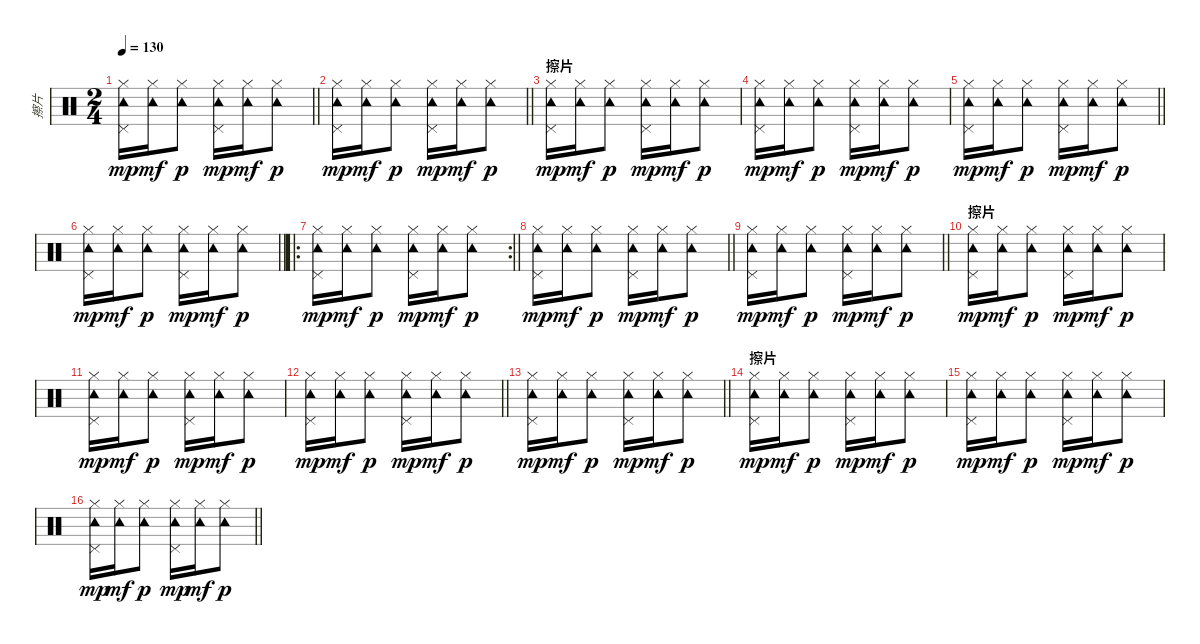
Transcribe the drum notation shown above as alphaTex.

\track ("擦片" "擦片") {instrument percussion}
\staff {score}
\articulation defaults
\ts (2 4)
\tempo 130
\clef neutral
\barLineRight lightlight
\ks c
("Hi-Hat (closed)" "Tambourine (hit)" "Pedal Hi-Hat (hit)").16{dy mp} ("Hi-Hat (closed)" "Tambourine (hit)").16{dy mf} ("Hi-Hat (closed)" "Tambourine (hit)").8{dy p} ("Hi-Hat (closed)" "Tambourine (hit)" "Pedal Hi-Hat (hit)").16{dy mp} ("Hi-Hat (closed)" "Tambourine (hit)").16{dy mf} ("Hi-Hat (closed)" "Tambourine (hit)").8{dy p} |
\barLineRight lightlight
("Hi-Hat (closed)" "Tambourine (hit)" "Pedal Hi-Hat (hit)").16{dy mp} ("Hi-Hat (closed)" "Tambourine (hit)").16{dy mf} ("Hi-Hat (closed)" "Tambourine (hit)").8{dy p} ("Hi-Hat (closed)" "Tambourine (hit)" "Pedal Hi-Hat (hit)").16{dy mp} ("Hi-Hat (closed)" "Tambourine (hit)").16{dy mf} ("Hi-Hat (closed)" "Tambourine (hit)").8{dy p} |
\section ("" "擦片")
("Hi-Hat (closed)" "Tambourine (hit)" "Pedal Hi-Hat (hit)").16{dy mp} ("Hi-Hat (closed)" "Tambourine (hit)").16{dy mf} ("Hi-Hat (closed)" "Tambourine (hit)").8{dy p} ("Hi-Hat (closed)" "Tambourine (hit)" "Pedal Hi-Hat (hit)").16{dy mp} ("Hi-Hat (closed)" "Tambourine (hit)").16{dy mf} ("Hi-Hat (closed)" "Tambourine (hit)").8{dy p} |
("Hi-Hat (closed)" "Tambourine (hit)" "Pedal Hi-Hat (hit)").16{dy mp} ("Hi-Hat (closed)" "Tambourine (hit)").16{dy mf} ("Hi-Hat (closed)" "Tambourine (hit)").8{dy p} ("Hi-Hat (closed)" "Tambourine (hit)" "Pedal Hi-Hat (hit)").16{dy mp} ("Hi-Hat (closed)" "Tambourine (hit)").16{dy mf} ("Hi-Hat (closed)" "Tambourine (hit)").8{dy p} |
\barLineRight lightlight
("Hi-Hat (closed)" "Tambourine (hit)" "Pedal Hi-Hat (hit)").16{dy mp} ("Hi-Hat (closed)" "Tambourine (hit)").16{dy mf} ("Hi-Hat (closed)" "Tambourine (hit)").8{dy p} ("Hi-Hat (closed)" "Tambourine (hit)" "Pedal Hi-Hat (hit)").16{dy mp} ("Hi-Hat (closed)" "Tambourine (hit)").16{dy mf} ("Hi-Hat (closed)" "Tambourine (hit)").8{dy p} |
\barLineRight lightlight
("Hi-Hat (closed)" "Tambourine (hit)" "Pedal Hi-Hat (hit)").16{dy mp} ("Hi-Hat (closed)" "Tambourine (hit)").16{dy mf} ("Hi-Hat (closed)" "Tambourine (hit)").8{dy p} ("Hi-Hat (closed)" "Tambourine (hit)" "Pedal Hi-Hat (hit)").16{dy mp} ("Hi-Hat (closed)" "Tambourine (hit)").16{dy mf} ("Hi-Hat (closed)" "Tambourine (hit)").8{dy p} |
\ro
\rc 2
\barLineRight lightlight
("Hi-Hat (closed)" "Tambourine (hit)" "Pedal Hi-Hat (hit)").16{dy mp} ("Hi-Hat (closed)" "Tambourine (hit)").16{dy mf} ("Hi-Hat (closed)" "Tambourine (hit)").8{dy p} ("Hi-Hat (closed)" "Tambourine (hit)" "Pedal Hi-Hat (hit)").16{dy mp} ("Hi-Hat (closed)" "Tambourine (hit)").16{dy mf} ("Hi-Hat (closed)" "Tambourine (hit)").8{dy p} |
\barLineRight lightlight
("Hi-Hat (closed)" "Tambourine (hit)" "Pedal Hi-Hat (hit)").16{dy mp} ("Hi-Hat (closed)" "Tambourine (hit)").16{dy mf} ("Hi-Hat (closed)" "Tambourine (hit)").8{dy p} ("Hi-Hat (closed)" "Tambourine (hit)" "Pedal Hi-Hat (hit)").16{dy mp} ("Hi-Hat (closed)" "Tambourine (hit)").16{dy mf} ("Hi-Hat (closed)" "Tambourine (hit)").8{dy p} |
\barLineRight lightlight
("Hi-Hat (closed)" "Tambourine (hit)" "Pedal Hi-Hat (hit)").16{dy mp} ("Hi-Hat (closed)" "Tambourine (hit)").16{dy mf} ("Hi-Hat (closed)" "Tambourine (hit)").8{dy p} ("Hi-Hat (closed)" "Tambourine (hit)" "Pedal Hi-Hat (hit)").16{dy mp} ("Hi-Hat (closed)" "Tambourine (hit)").16{dy mf} ("Hi-Hat (closed)" "Tambourine (hit)").8{dy p} |
\section ("" "擦片")
("Hi-Hat (closed)" "Tambourine (hit)" "Pedal Hi-Hat (hit)").16{dy mp} ("Hi-Hat (closed)" "Tambourine (hit)").16{dy mf} ("Hi-Hat (closed)" "Tambourine (hit)").8{dy p} ("Hi-Hat (closed)" "Tambourine (hit)" "Pedal Hi-Hat (hit)").16{dy mp} ("Hi-Hat (closed)" "Tambourine (hit)").16{dy mf} ("Hi-Hat (closed)" "Tambourine (hit)").8{dy p} |
("Hi-Hat (closed)" "Tambourine (hit)" "Pedal Hi-Hat (hit)").16{dy mp} ("Hi-Hat (closed)" "Tambourine (hit)").16{dy mf} ("Hi-Hat (closed)" "Tambourine (hit)").8{dy p} ("Hi-Hat (closed)" "Tambourine (hit)" "Pedal Hi-Hat (hit)").16{dy mp} ("Hi-Hat (closed)" "Tambourine (hit)").16{dy mf} ("Hi-Hat (closed)" "Tambourine (hit)").8{dy p} |
\barLineRight lightlight
("Hi-Hat (closed)" "Tambourine (hit)" "Pedal Hi-Hat (hit)").16{dy mp} ("Hi-Hat (closed)" "Tambourine (hit)").16{dy mf} ("Hi-Hat (closed)" "Tambourine (hit)").8{dy p} ("Hi-Hat (closed)" "Tambourine (hit)" "Pedal Hi-Hat (hit)").16{dy mp} ("Hi-Hat (closed)" "Tambourine (hit)").16{dy mf} ("Hi-Hat (closed)" "Tambourine (hit)").8{dy p} |
\barLineRight lightlight
("Hi-Hat (closed)" "Tambourine (hit)" "Pedal Hi-Hat (hit)").16{dy mp} ("Hi-Hat (closed)" "Tambourine (hit)").16{dy mf} ("Hi-Hat (closed)" "Tambourine (hit)").8{dy p} ("Hi-Hat (closed)" "Tambourine (hit)" "Pedal Hi-Hat (hit)").16{dy mp} ("Hi-Hat (closed)" "Tambourine (hit)").16{dy mf} ("Hi-Hat (closed)" "Tambourine (hit)").8{dy p} |
\section ("" "擦片")
("Hi-Hat (closed)" "Tambourine (hit)" "Pedal Hi-Hat (hit)").16{dy mp} ("Hi-Hat (closed)" "Tambourine (hit)").16{dy mf} ("Hi-Hat (closed)" "Tambourine (hit)").8{dy p} ("Hi-Hat (closed)" "Tambourine (hit)" "Pedal Hi-Hat (hit)").16{dy mp} ("Hi-Hat (closed)" "Tambourine (hit)").16{dy mf} ("Hi-Hat (closed)" "Tambourine (hit)").8{dy p} |
("Hi-Hat (closed)" "Tambourine (hit)" "Pedal Hi-Hat (hit)").16{dy mp} ("Hi-Hat (closed)" "Tambourine (hit)").16{dy mf} ("Hi-Hat (closed)" "Tambourine (hit)").8{dy p} ("Hi-Hat (closed)" "Tambourine (hit)" "Pedal Hi-Hat (hit)").16{dy mp} ("Hi-Hat (closed)" "Tambourine (hit)").16{dy mf} ("Hi-Hat (closed)" "Tambourine (hit)").8{dy p} |
\barLineRight lightlight
("Hi-Hat (closed)" "Tambourine (hit)" "Pedal Hi-Hat (hit)").16{dy mp} ("Hi-Hat (closed)" "Tambourine (hit)").16{dy mf} ("Hi-Hat (closed)" "Tambourine (hit)").8{dy p} ("Hi-Hat (closed)" "Tambourine (hit)" "Pedal Hi-Hat (hit)").16{dy mp} ("Hi-Hat (closed)" "Tambourine (hit)").16{dy mf} ("Hi-Hat (closed)" "Tambourine (hit)").8{dy p}
